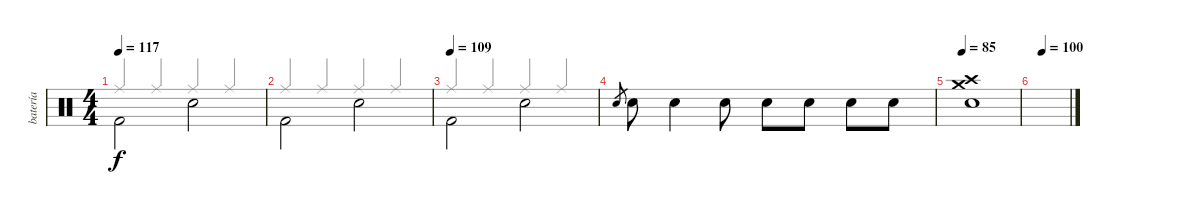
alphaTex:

\track ("batería" "batería") {instrument percussion}
\staff {score}
\articulation defaults
\voice
\ts (4 4)
\tempo 117
\clef neutral
\ks c "Kick (hit) 2".2{dy f beam Down} "Snare (hit) 2".2{beam Down}
|
"Kick (hit) 2".2{beam Down} "Snare (hit) 2".2{beam Down} |
\tempo (109)
"Kick (hit) 2".2{beam Down} "Snare (hit) 2".2{beam Down} |
"Snare (hit) 2"{h}.8{gr} "Snare (hit) 2".8{beam Down} "Snare (hit) 2".4{beam Down} "Snare (hit) 2".8 "Snare (hit) 2".8{beam Down} "Snare (hit) 2".8{beam Down} "Snare (hit) 2".8 "Snare (hit) 2".8 |
\tempo 85
("Crash medium (hit)" "Crash high (hit)" "Snare (hit) 2").1 |
\tempo (100 0.25)
|
\voice
\clef neutral
\ottava regular
\simile none
\ks c "Ride (middle)".4{dy f beam Up} "Ride (middle)".4{beam Up} "Ride (middle)".4{beam Up} "Ride (middle)".4{beam Up}
|
"Ride (middle)".4{beam Up} "Ride (middle)".4{beam Up} "Ride (middle)".4{beam Up} "Ride (middle)".4{beam Up} |
"Ride (middle)".4{beam Up} "Ride (middle)".4{beam Up} "Ride (middle)".4{beam Up} "Ride (middle)".4{beam Up} |
|
|
|
